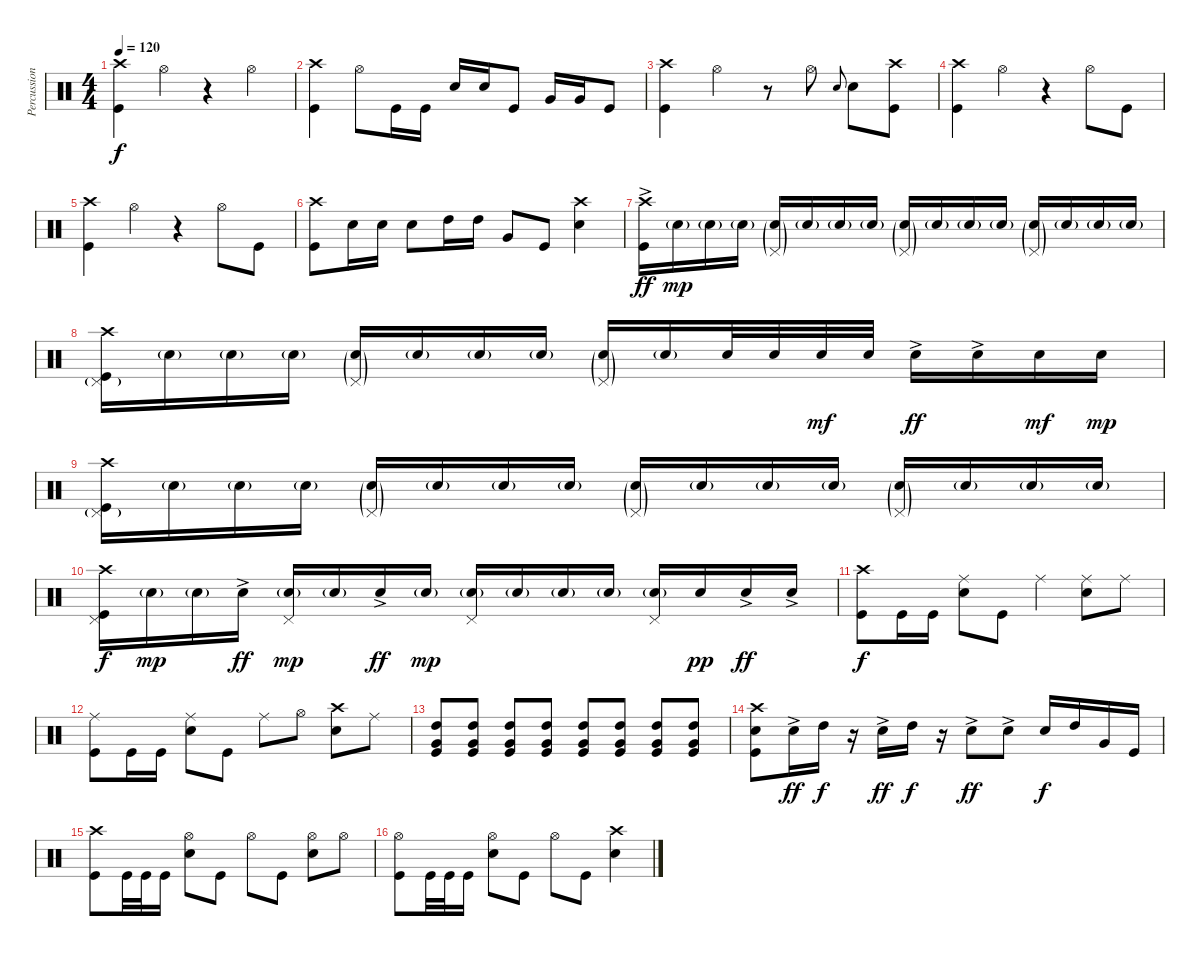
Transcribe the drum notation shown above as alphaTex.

\track ("Percussion" "Percussion") {instrument percussion}
\staff {score}
\articulation defaults
\ts (4 4)
\tempo 120
\clef neutral
\ks c
("Crash high (hit)" "Kick (hit)").4{dy f} "Hi-Hat (open)".4 r.4 "Hi-Hat (open)".4 |
("Crash high (hit)" "Kick (hit)").4 "Hi-Hat (open)".8 "Kick (hit)".16 "Kick (hit)".16 "Snare (hit) 2".16 "Snare (hit) 2".16 "Kick (hit)".8 "Very Low Tom (hit)".16 "Very Low Tom (hit)".16 "Kick (hit)".8 |
("Crash high (hit)" "Kick (hit)").4 "Hi-Hat (open)".4 r.8 "Hi-Hat (open)".8 "Snare (hit) 2".8{gr onbeat} "Snare (hit) 2".8 ("Crash high (hit)" "Kick (hit)").8 |
("Crash high (hit)" "Kick (hit)").4 "Hi-Hat (open)".4 r.4 "Hi-Hat (open)".8 "Kick (hit)".8 |
("Crash high (hit)" "Kick (hit)").4 "Hi-Hat (open)".4 r.4 "Hi-Hat (open)".8 "Kick (hit)".8 |
("Crash high (hit)" "Kick (hit)").8 "Snare (hit) 2".16 "Snare (hit) 2".16 "Snare (hit) 2".8 "High Tom (hit)".16 "High Tom (hit)".16 "Very Low Tom (hit)".8 "Kick (hit)".8 ("Snare (hit) 2" "Crash high (hit)").4 |
("Crash high (hit)"{ac} "Kick (hit)").16{dy ff} "Snare (hit) 2"{g}.16{dy mp} "Snare (hit) 2"{g}.16 "Snare (hit) 2"{g}.16 ("Snare (hit) 2"{g} "Pedal Hi-Hat (hit)"{g}).16 "Snare (hit) 2"{g}.16 "Snare (hit) 2"{g}.16 "Snare (hit) 2"{g}.16 ("Snare (hit) 2"{g} "Pedal Hi-Hat (hit)"{g}).16 "Snare (hit) 2"{g}.16 "Snare (hit) 2"{g}.16 "Snare (hit) 2"{g}.16 ("Snare (hit) 2"{g} "Pedal Hi-Hat (hit)"{g}).16 "Snare (hit) 2"{g}.16 "Snare (hit) 2"{g}.16 "Snare (hit) 2"{g}.16 |
("Kick (hit)" "Pedal Hi-Hat (hit)"{g} "Crash high (hit)").16 "Snare (hit) 2"{g}.16 "Snare (hit) 2"{g}.16 "Snare (hit) 2"{g}.16 ("Snare (hit) 2"{g} "Pedal Hi-Hat (hit)"{g}).16 "Snare (hit) 2"{g}.16 "Snare (hit) 2"{g}.16 "Snare (hit) 2"{g}.16 ("Snare (hit) 2"{g} "Pedal Hi-Hat (hit)"{g}).16 "Snare (hit) 2"{g}.16 "Snare (hit) 2".32 "Snare (hit) 2".32 "Snare (hit) 2".32{dy mf} "Snare (hit) 2".32 "Snare (hit) 2"{ac}.16{dy ff} "Snare (hit) 2"{ac}.16 "Snare (hit) 2".16{dy mf} "Snare (hit) 2".16{dy mp} |
("Crash high (hit)" "Pedal Hi-Hat (hit)"{g} "Kick (hit)").16 "Snare (hit) 2"{g}.16 "Snare (hit) 2"{g}.16 "Snare (hit) 2"{g}.16 ("Snare (hit) 2"{g} "Pedal Hi-Hat (hit)"{g}).16 "Snare (hit) 2"{g}.16 "Snare (hit) 2"{g}.16 "Snare (hit) 2"{g}.16 ("Snare (hit) 2"{g} "Pedal Hi-Hat (hit)"{g}).16 "Snare (hit) 2"{g}.16 "Snare (hit) 2"{g}.16 "Snare (hit) 2"{g}.16 ("Snare (hit) 2"{g} "Pedal Hi-Hat (hit)"{g}).16 "Snare (hit) 2"{g}.16 "Snare (hit) 2"{g}.16 "Snare (hit) 2"{g}.16 |
("Crash high (hit)" "Pedal Hi-Hat (hit)" "Kick (hit)").16{dy f} "Snare (hit) 2"{g}.16{dy mp} "Snare (hit) 2"{g}.16 "Snare (hit) 2"{ac}.16{dy ff} ("Snare (hit) 2"{g} "Pedal Hi-Hat (hit)").16{dy mp} "Snare (hit) 2"{g}.16 "Snare (hit) 2"{ac}.16{dy ff} "Snare (hit) 2"{g}.16{dy mp} ("Snare (hit) 2"{g} "Pedal Hi-Hat (hit)").16 "Snare (hit) 2"{g}.16 "Snare (hit) 2"{g}.16 "Snare (hit) 2"{g}.16 ("Snare (hit) 2"{g} "Pedal Hi-Hat (hit)").16 "Snare (hit) 2".16{dy pp} "Snare (hit) 2"{ac}.16{dy ff} "Snare (hit) 2"{ac}.16 |
("Crash high (hit)" "Kick (hit)").8{dy f} "Kick (hit)".16 "Kick (hit)".16 ("Ride (middle)" "Snare (hit) 2").8 "Kick (hit)".8 "Ride (middle)".4 ("Snare (hit) 2" "Ride (middle)").8 "Ride (middle)".8 |
("Ride (middle)" "Kick (hit)").8 "Kick (hit)".16 "Kick (hit)".16 ("Ride (middle)" "Snare (hit) 2").8 "Kick (hit)".8 "Ride (middle)".8 "Hi-Hat (open)".8 ("Crash high (hit)" "Snare (hit) 2").8 "Ride (middle)".8 |
("Very Low Tom (hit)" "Kick (hit)" "High Tom (hit)").8 ("Very Low Tom (hit)" "Kick (hit)" "High Tom (hit)").8 ("Very Low Tom (hit)" "Kick (hit)" "High Tom (hit)").8 ("Very Low Tom (hit)" "Kick (hit)" "High Tom (hit)").8 ("Very Low Tom (hit)" "Kick (hit)" "High Tom (hit)").8 ("Very Low Tom (hit)" "Kick (hit)" "High Tom (hit)").8 ("Very Low Tom (hit)" "Kick (hit)" "High Tom (hit)").8 ("Very Low Tom (hit)" "Kick (hit)" "High Tom (hit)").8 |
("Crash high (hit)" "Snare (hit) 2" "Kick (hit)").8 "Snare (hit) 2"{ac}.16{dy ff} "High Tom (hit)".16{dy f} r.16 "Snare (hit) 2"{ac}.16{dy ff} "High Tom (hit)".16{dy f} r.16 "Snare (hit) 2"{ac}.8{dy ff} "Snare (hit) 2"{ac}.8 "Snare (hit) 2".16{dy f} "High Tom (hit)".16 "Very Low Tom (hit)".16 "Kick (hit)".16 |
("Crash high (hit)" "Kick (hit)").8 "Kick (hit)".32 "Kick (hit)".32 "Kick (hit)".16 ("Hi-Hat (open)" "Snare (hit) 2").8 "Kick (hit)".8 "Hi-Hat (open)".8 "Kick (hit)".8 ("Snare (hit) 2" "Hi-Hat (open)").8 "Hi-Hat (open)".8 |
("Hi-Hat (open)" "Kick (hit)").8 "Kick (hit)".32 "Kick (hit)".32 "Kick (hit)".16 ("Hi-Hat (open)" "Snare (hit) 2").8 "Kick (hit)".8 "Hi-Hat (open)".8 "Kick (hit)".8 ("Snare (hit) 2" "Crash high (hit)").4
